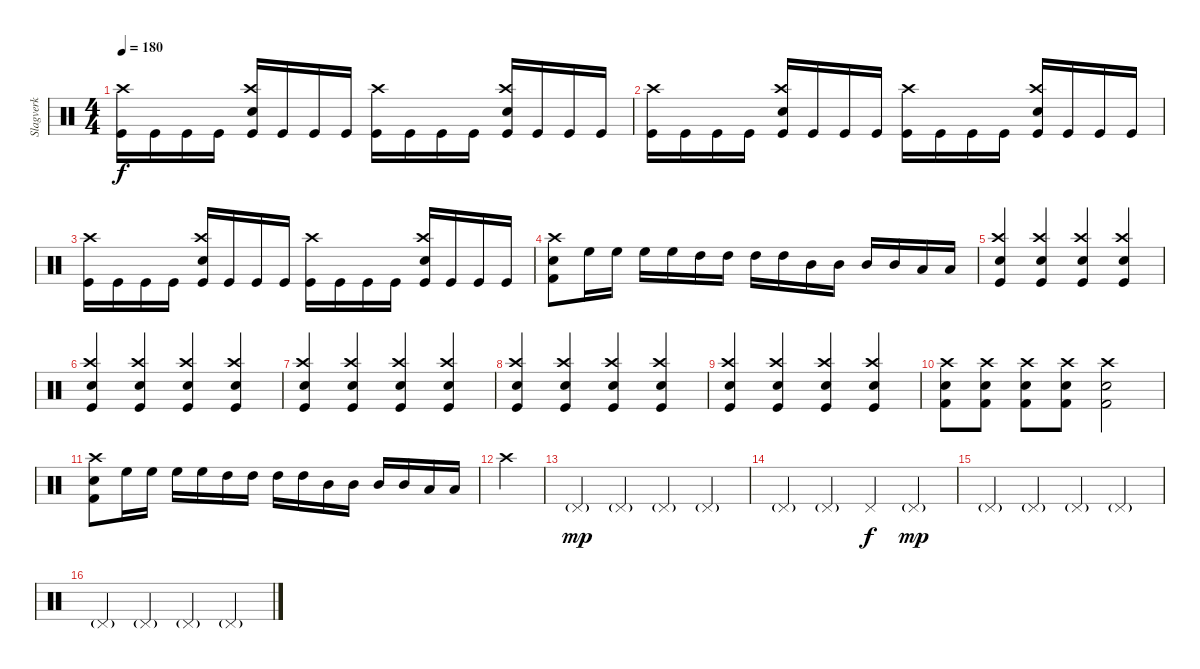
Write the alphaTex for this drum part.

\track ("Slagverk" "Slagverk") {instrument percussion}
\staff {score}
\articulation defaults
\ts (4 4)
\tempo 180
\clef neutral
\ks c
("Kick (hit)" "Crash high (hit)").16{dy f} "Kick (hit)".16 "Kick (hit)".16 "Kick (hit)".16 ("Kick (hit)" "Electric Snare (hit)" "Crash high (hit)").16 "Kick (hit)".16 "Kick (hit)".16 "Kick (hit)".16 ("Kick (hit)" "Crash high (hit)").16 "Kick (hit)".16 "Kick (hit)".16 "Kick (hit)".16 ("Kick (hit)" "Electric Snare (hit)" "Crash high (hit)").16 "Kick (hit)".16 "Kick (hit)".16 "Kick (hit)".16 |
("Kick (hit)" "Crash high (hit)").16 "Kick (hit)".16 "Kick (hit)".16 "Kick (hit)".16 ("Kick (hit)" "Electric Snare (hit)" "Crash high (hit)").16 "Kick (hit)".16 "Kick (hit)".16 "Kick (hit)".16 ("Kick (hit)" "Crash high (hit)").16 "Kick (hit)".16 "Kick (hit)".16 "Kick (hit)".16 ("Kick (hit)" "Electric Snare (hit)" "Crash high (hit)").16 "Kick (hit)".16 "Kick (hit)".16 "Kick (hit)".16 |
("Kick (hit)" "Crash high (hit)").16 "Kick (hit)".16 "Kick (hit)".16 "Kick (hit)".16 ("Kick (hit)" "Electric Snare (hit)" "Crash high (hit)").16 "Kick (hit)".16 "Kick (hit)".16 "Kick (hit)".16 ("Kick (hit)" "Crash high (hit)").16 "Kick (hit)".16 "Kick (hit)".16 "Kick (hit)".16 ("Kick (hit)" "Electric Snare (hit)" "Crash high (hit)").16 "Kick (hit)".16 "Kick (hit)".16 "Kick (hit)".16 |
("Crash high (hit)" "Kick (hit) 2" "Electric Snare (hit)").8 "High Floor Tom (hit)".16 "High Floor Tom (hit)".16 "High Floor Tom (hit)".16 "High Floor Tom (hit)".16 "High Tom (hit)".16 "High Tom (hit)".16 "High Tom (hit)".16 "High Tom (hit)".16 "Mid Tom (hit)".16 "Mid Tom (hit)".16 "Mid Tom (hit)".16 "Mid Tom (hit)".16 "Low Tom (hit)".16 "Low Tom (hit)".16 |
("Crash high (hit)" "Kick (hit)" "Electric Snare (hit)").4 ("Crash high (hit)" "Kick (hit)" "Electric Snare (hit)").4 ("Crash high (hit)" "Kick (hit)" "Electric Snare (hit)").4 ("Crash high (hit)" "Kick (hit)" "Electric Snare (hit)").4 |
("Crash high (hit)" "Kick (hit)" "Electric Snare (hit)").4 ("Crash high (hit)" "Kick (hit)" "Electric Snare (hit)").4 ("Crash high (hit)" "Kick (hit)" "Electric Snare (hit)").4 ("Crash high (hit)" "Kick (hit)" "Electric Snare (hit)").4 |
("Crash high (hit)" "Kick (hit)" "Electric Snare (hit)").4 ("Crash high (hit)" "Kick (hit)" "Electric Snare (hit)").4 ("Crash high (hit)" "Kick (hit)" "Electric Snare (hit)").4 ("Crash high (hit)" "Kick (hit)" "Electric Snare (hit)").4 |
("Crash high (hit)" "Kick (hit)" "Electric Snare (hit)").4 ("Crash high (hit)" "Kick (hit)" "Electric Snare (hit)").4 ("Crash high (hit)" "Kick (hit)" "Electric Snare (hit)").4 ("Crash high (hit)" "Kick (hit)" "Electric Snare (hit)").4 |
("Crash high (hit)" "Kick (hit)" "Electric Snare (hit)").4 ("Crash high (hit)" "Kick (hit)" "Electric Snare (hit)").4 ("Crash high (hit)" "Kick (hit)" "Electric Snare (hit)").4 ("Crash high (hit)" "Kick (hit)" "Electric Snare (hit)").4 |
("Crash high (hit)" "Electric Snare (hit)" "Kick (hit) 2").8 ("Crash high (hit)" "Electric Snare (hit)" "Kick (hit) 2").8 ("Crash high (hit)" "Electric Snare (hit)" "Kick (hit) 2").8 ("Crash high (hit)" "Electric Snare (hit)" "Kick (hit) 2").8 ("Crash high (hit)" "Electric Snare (hit)" "Kick (hit) 2").2 |
("Crash high (hit)" "Kick (hit) 2" "Electric Snare (hit)").8 "High Floor Tom (hit)".16 "High Floor Tom (hit)".16 "High Floor Tom (hit)".16 "High Floor Tom (hit)".16 "High Tom (hit)".16 "High Tom (hit)".16 "High Tom (hit)".16 "High Tom (hit)".16 "Mid Tom (hit)".16 "Mid Tom (hit)".16 "Mid Tom (hit)".16 "Mid Tom (hit)".16 "Low Tom (hit)".16 "Low Tom (hit)".16 |
"Crash high (hit)".4 |
"Pedal Hi-Hat (hit)"{g}.2{dy mp} "Pedal Hi-Hat (hit)"{g}.2 "Pedal Hi-Hat (hit)"{g}.2 "Pedal Hi-Hat (hit)"{g}.2 |
"Pedal Hi-Hat (hit)"{g}.2 "Pedal Hi-Hat (hit)"{g}.2 "Pedal Hi-Hat (hit)".2{dy f} "Pedal Hi-Hat (hit)"{g}.2{dy mp} |
"Pedal Hi-Hat (hit)"{g}.2 "Pedal Hi-Hat (hit)"{g}.2 "Pedal Hi-Hat (hit)"{g}.2 "Pedal Hi-Hat (hit)"{g}.2 |
"Pedal Hi-Hat (hit)"{g}.2 "Pedal Hi-Hat (hit)"{g}.2 "Pedal Hi-Hat (hit)"{g}.2 "Pedal Hi-Hat (hit)"{g}.2
